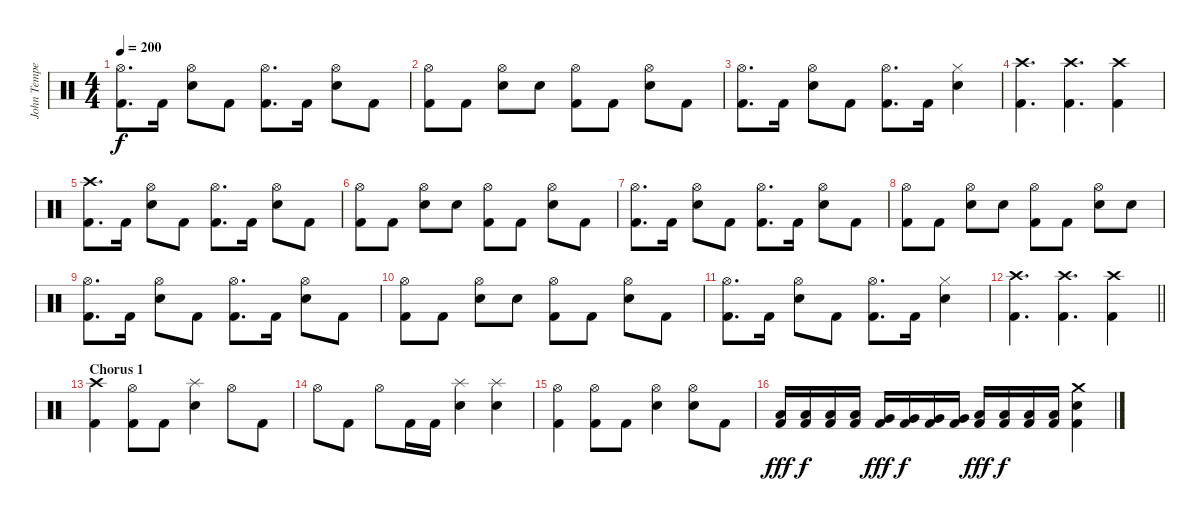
\track ("John Tempesta" "John Tempe") {instrument percussion}
\staff {score}
\articulation defaults
\ts (4 4)
\tempo 200
\clef neutral
\ks c
("Hi-Hat (open)" "Kick (hit) 2").8{d dy f} "Kick (hit) 2".16 ("Electric Snare (hit)" "Hi-Hat (open)").8 "Kick (hit) 2".8 ("Hi-Hat (open)" "Kick (hit) 2").8{d} "Kick (hit) 2".16 ("Electric Snare (hit)" "Hi-Hat (open)").8 "Kick (hit) 2".8 |
("Hi-Hat (open)" "Kick (hit) 2").8 "Kick (hit) 2".8 ("Electric Snare (hit)" "Hi-Hat (open)").8 "Electric Snare (hit)".8 ("Hi-Hat (open)" "Kick (hit) 2").8 "Kick (hit) 2".8 ("Electric Snare (hit)" "Hi-Hat (open)").8 "Kick (hit) 2".8 |
("Hi-Hat (open)" "Kick (hit) 2").8{d} "Kick (hit) 2".16 ("Electric Snare (hit)" "Hi-Hat (open)").8 "Kick (hit) 2".8 ("Hi-Hat (open)" "Kick (hit) 2").8{d} "Kick (hit) 2".16 ("Electric Snare (hit)" "Hi-Hat (closed)").4 |
("Crash high (hit)" "Kick (hit) 2").4{d} ("Crash high (hit)" "Kick (hit) 2").4{d} ("Crash high (hit)" "Kick (hit) 2").4 |
("Crash high (hit)" "Kick (hit) 2").8{d} "Kick (hit) 2".16 ("Electric Snare (hit)" "Hi-Hat (open)").8 "Kick (hit) 2".8 ("Hi-Hat (open)" "Kick (hit) 2").8{d} "Kick (hit) 2".16 ("Electric Snare (hit)" "Hi-Hat (open)").8 "Kick (hit) 2".8 |
("Hi-Hat (open)" "Kick (hit) 2").8 "Kick (hit) 2".8 ("Electric Snare (hit)" "Hi-Hat (open)").8 "Electric Snare (hit)".8 ("Hi-Hat (open)" "Kick (hit) 2").8 "Kick (hit) 2".8 ("Electric Snare (hit)" "Hi-Hat (open)").8 "Kick (hit) 2".8 |
("Hi-Hat (open)" "Kick (hit) 2").8{d} "Kick (hit) 2".16 ("Electric Snare (hit)" "Hi-Hat (open)").8 "Kick (hit) 2".8 ("Hi-Hat (open)" "Kick (hit) 2").8{d} "Kick (hit) 2".16 ("Electric Snare (hit)" "Hi-Hat (open)").8 "Kick (hit) 2".8 |
("Hi-Hat (open)" "Kick (hit) 2").8 "Kick (hit) 2".8 ("Electric Snare (hit)" "Hi-Hat (open)").8 "Electric Snare (hit)".8 ("Hi-Hat (open)" "Kick (hit) 2").8 "Kick (hit) 2".8 ("Electric Snare (hit)" "Hi-Hat (open)").8 "Electric Snare (hit)".8 |
("Hi-Hat (open)" "Kick (hit) 2").8{d} "Kick (hit) 2".16 ("Electric Snare (hit)" "Hi-Hat (open)").8 "Kick (hit) 2".8 ("Hi-Hat (open)" "Kick (hit) 2").8{d} "Kick (hit) 2".16 ("Electric Snare (hit)" "Hi-Hat (open)").8 "Kick (hit) 2".8 |
("Hi-Hat (open)" "Kick (hit) 2").8 "Kick (hit) 2".8 ("Electric Snare (hit)" "Hi-Hat (open)").8 "Electric Snare (hit)".8 ("Hi-Hat (open)" "Kick (hit) 2").8 "Kick (hit) 2".8 ("Electric Snare (hit)" "Hi-Hat (open)").8 "Kick (hit) 2".8 |
("Hi-Hat (open)" "Kick (hit) 2").8{d} "Kick (hit) 2".16 ("Electric Snare (hit)" "Hi-Hat (open)").8 "Kick (hit) 2".8 ("Hi-Hat (open)" "Kick (hit) 2").8{d} "Kick (hit) 2".16 ("Electric Snare (hit)" "Hi-Hat (closed)").4 |
\barLineRight lightlight
("Crash high (hit)" "Kick (hit) 2").4{d} ("Crash high (hit)" "Kick (hit) 2").4{d} ("Crash high (hit)" "Kick (hit) 2").4 |
\section ("" "Chorus 1")
("Crash high (hit)" "Kick (hit) 2").4 ("Hi-Hat (open)" "Kick (hit) 2").8 "Kick (hit) 2".8 ("Electric Snare (hit)" "Splash (hit)").4 "Hi-Hat (open)".8 "Kick (hit) 2".8 |
"Hi-Hat (open)".8 "Kick (hit) 2".8 "Hi-Hat (open)".8 "Kick (hit) 2".16 "Kick (hit) 2".16 ("Electric Snare (hit)" "Splash (hit)").4 ("Electric Snare (hit)" "Splash (hit)").4 |
("Hi-Hat (open)" "Kick (hit) 2").4 ("Hi-Hat (open)" "Kick (hit) 2").8 "Kick (hit) 2".8 ("Electric Snare (hit)" "Hi-Hat (open)").4 ("Electric Snare (hit)" "Hi-Hat (open)").8 "Kick (hit) 2".8 |
("Low Tom (hit)" "Kick (hit) 2").16{dy fff} ("Low Tom (hit)" "Kick (hit) 2").16{dy f} ("Low Tom (hit)" "Kick (hit) 2").16 ("Low Tom (hit)" "Kick (hit) 2").16 ("Very Low Tom (hit)" "Kick (hit) 2").16{dy fff} ("Very Low Tom (hit)" "Kick (hit) 2").16{dy f} ("Very Low Tom (hit)" "Kick (hit) 2").16 ("Very Low Tom (hit)" "Kick (hit) 2").16 ("Low Floor Tom (hit)" "Kick (hit) 2").16{dy fff} ("Low Floor Tom (hit)" "Kick (hit) 2").16{dy f} ("Low Floor Tom (hit)" "Kick (hit) 2").16 ("Low Floor Tom (hit)" "Kick (hit) 2").16 ("Electric Snare (hit)" "Crash medium (hit)" "Kick (hit) 2").4
